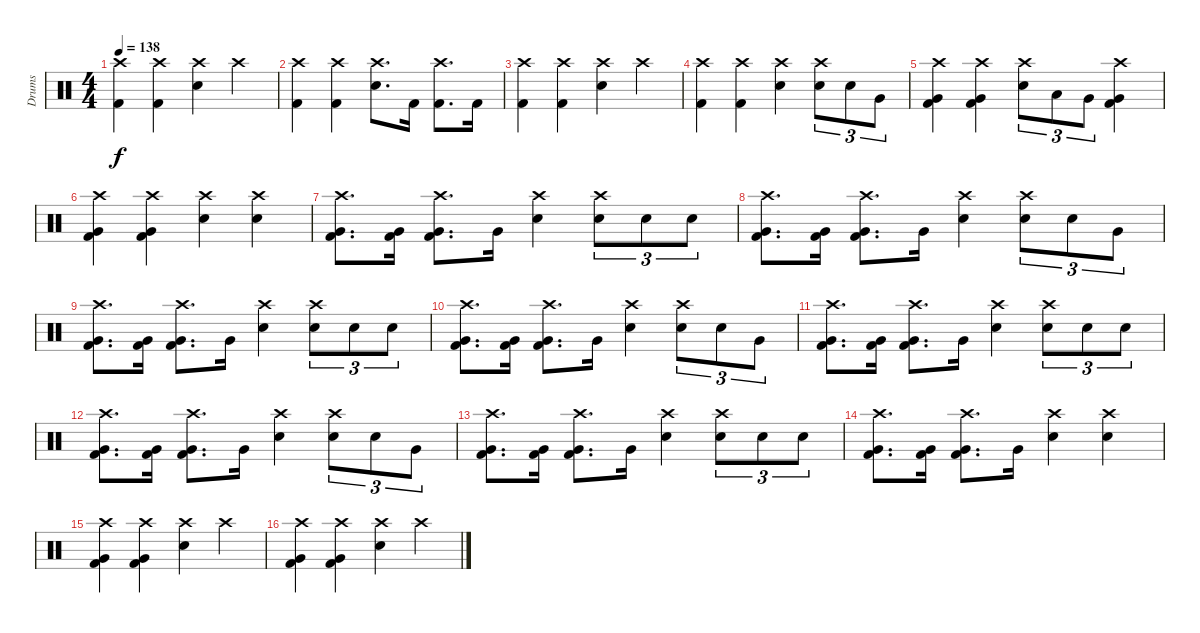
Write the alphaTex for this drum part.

\track ("Drums" "Drums") {instrument percussion}
\staff {score}
\articulation defaults
\ts (4 4)
\tempo 138
\clef neutral
\ks c
("Crash high (hit)" "Kick (hit) 2").4{dy f} ("Crash high (hit)" "Kick (hit) 2").4 ("Crash high (hit)" "Snare (hit) 2").4 "Crash high (hit)".4 |
("Crash high (hit)" "Kick (hit) 2").4 ("Crash high (hit)" "Kick (hit) 2").4 ("Crash high (hit)" "Snare (hit) 2").8{d} "Kick (hit) 2".16 ("Crash high (hit)" "Kick (hit) 2").8{d} "Kick (hit) 2".16 |
("Crash high (hit)" "Kick (hit) 2").4 ("Crash high (hit)" "Kick (hit) 2").4 ("Crash high (hit)" "Snare (hit) 2").4 "Crash high (hit)".4 |
("Crash high (hit)" "Kick (hit) 2").4 ("Crash high (hit)" "Kick (hit) 2").4 ("Crash high (hit)" "Snare (hit) 2").4 ("Crash high (hit)" "Snare (hit) 2").8{tu (3 2)} "Snare (hit) 2".8{tu (3 2)} "Very Low Tom (hit)".8{tu (3 2)} |
("Crash high (hit)" "Very Low Tom (hit)" "Kick (hit) 2").4 ("Crash high (hit)" "Very Low Tom (hit)" "Kick (hit) 2").4 ("Crash high (hit)" "Snare (hit) 2").8{tu (3 2)} "Low Tom (hit)".8{tu (3 2)} "Very Low Tom (hit)".8{tu (3 2)} ("Crash high (hit)" "Very Low Tom (hit)" "Kick (hit) 2").4 |
("Crash high (hit)" "Very Low Tom (hit)" "Kick (hit) 2").4 ("Crash high (hit)" "Very Low Tom (hit)" "Kick (hit) 2").4 ("Crash high (hit)" "Snare (hit) 2").4 ("Crash high (hit)" "Snare (hit) 2").4 |
("Crash high (hit)" "Very Low Tom (hit)" "Kick (hit) 2").8{d} ("Very Low Tom (hit)" "Kick (hit) 2").16 ("Crash high (hit)" "Very Low Tom (hit)" "Kick (hit) 2").8{d} "Very Low Tom (hit)".16 ("Crash high (hit)" "Snare (hit) 2").4 ("Crash high (hit)" "Snare (hit) 2").8{tu (3 2)} "Snare (hit) 2".8{tu (3 2)} "Snare (hit) 2".8{tu (3 2)} |
("Crash high (hit)" "Very Low Tom (hit)" "Kick (hit) 2").8{d} ("Very Low Tom (hit)" "Kick (hit) 2").16 ("Crash high (hit)" "Very Low Tom (hit)" "Kick (hit) 2").8{d} "Very Low Tom (hit)".16 ("Crash high (hit)" "Snare (hit) 2").4 ("Crash high (hit)" "Snare (hit) 2").8{tu (3 2)} "Snare (hit) 2".8{tu (3 2)} "Very Low Tom (hit)".8{tu (3 2)} |
("Crash high (hit)" "Very Low Tom (hit)" "Kick (hit) 2").8{d} ("Very Low Tom (hit)" "Kick (hit) 2").16 ("Crash high (hit)" "Very Low Tom (hit)" "Kick (hit) 2").8{d} "Very Low Tom (hit)".16 ("Crash high (hit)" "Snare (hit) 2").4 ("Crash high (hit)" "Snare (hit) 2").8{tu (3 2)} "Snare (hit) 2".8{tu (3 2)} "Snare (hit) 2".8{tu (3 2)} |
("Crash high (hit)" "Very Low Tom (hit)" "Kick (hit) 2").8{d} ("Very Low Tom (hit)" "Kick (hit) 2").16 ("Crash high (hit)" "Very Low Tom (hit)" "Kick (hit) 2").8{d} "Very Low Tom (hit)".16 ("Crash high (hit)" "Snare (hit) 2").4 ("Crash high (hit)" "Snare (hit) 2").8{tu (3 2)} "Snare (hit) 2".8{tu (3 2)} "Very Low Tom (hit)".8{tu (3 2)} |
("Crash high (hit)" "Very Low Tom (hit)" "Kick (hit) 2").8{d} ("Very Low Tom (hit)" "Kick (hit) 2").16 ("Crash high (hit)" "Very Low Tom (hit)" "Kick (hit) 2").8{d} "Very Low Tom (hit)".16 ("Crash high (hit)" "Snare (hit) 2").4 ("Crash high (hit)" "Snare (hit) 2").8{tu (3 2)} "Snare (hit) 2".8{tu (3 2)} "Snare (hit) 2".8{tu (3 2)} |
("Crash high (hit)" "Very Low Tom (hit)" "Kick (hit) 2").8{d} ("Very Low Tom (hit)" "Kick (hit) 2").16 ("Crash high (hit)" "Very Low Tom (hit)" "Kick (hit) 2").8{d} "Very Low Tom (hit)".16 ("Crash high (hit)" "Snare (hit) 2").4 ("Crash high (hit)" "Snare (hit) 2").8{tu (3 2)} "Snare (hit) 2".8{tu (3 2)} "Very Low Tom (hit)".8{tu (3 2)} |
("Crash high (hit)" "Very Low Tom (hit)" "Kick (hit) 2").8{d} ("Very Low Tom (hit)" "Kick (hit) 2").16 ("Crash high (hit)" "Very Low Tom (hit)" "Kick (hit) 2").8{d} "Very Low Tom (hit)".16 ("Crash high (hit)" "Snare (hit) 2").4 ("Crash high (hit)" "Snare (hit) 2").8{tu (3 2)} "Snare (hit) 2".8{tu (3 2)} "Snare (hit) 2".8{tu (3 2)} |
("Crash high (hit)" "Very Low Tom (hit)" "Kick (hit) 2").8{d} ("Very Low Tom (hit)" "Kick (hit) 2").16 ("Crash high (hit)" "Very Low Tom (hit)" "Kick (hit) 2").8{d} "Very Low Tom (hit)".16 ("Crash high (hit)" "Snare (hit) 2").4 ("Crash high (hit)" "Snare (hit) 2").4 |
("Crash high (hit)" "Very Low Tom (hit)" "Kick (hit) 2").4 ("Crash high (hit)" "Very Low Tom (hit)" "Kick (hit) 2").4 ("Crash high (hit)" "Snare (hit) 2").4 "Crash high (hit)".4 |
("Crash high (hit)" "Very Low Tom (hit)" "Kick (hit) 2").4 ("Crash high (hit)" "Very Low Tom (hit)" "Kick (hit) 2").4 ("Crash high (hit)" "Snare (hit) 2").4 "Crash high (hit)".4
